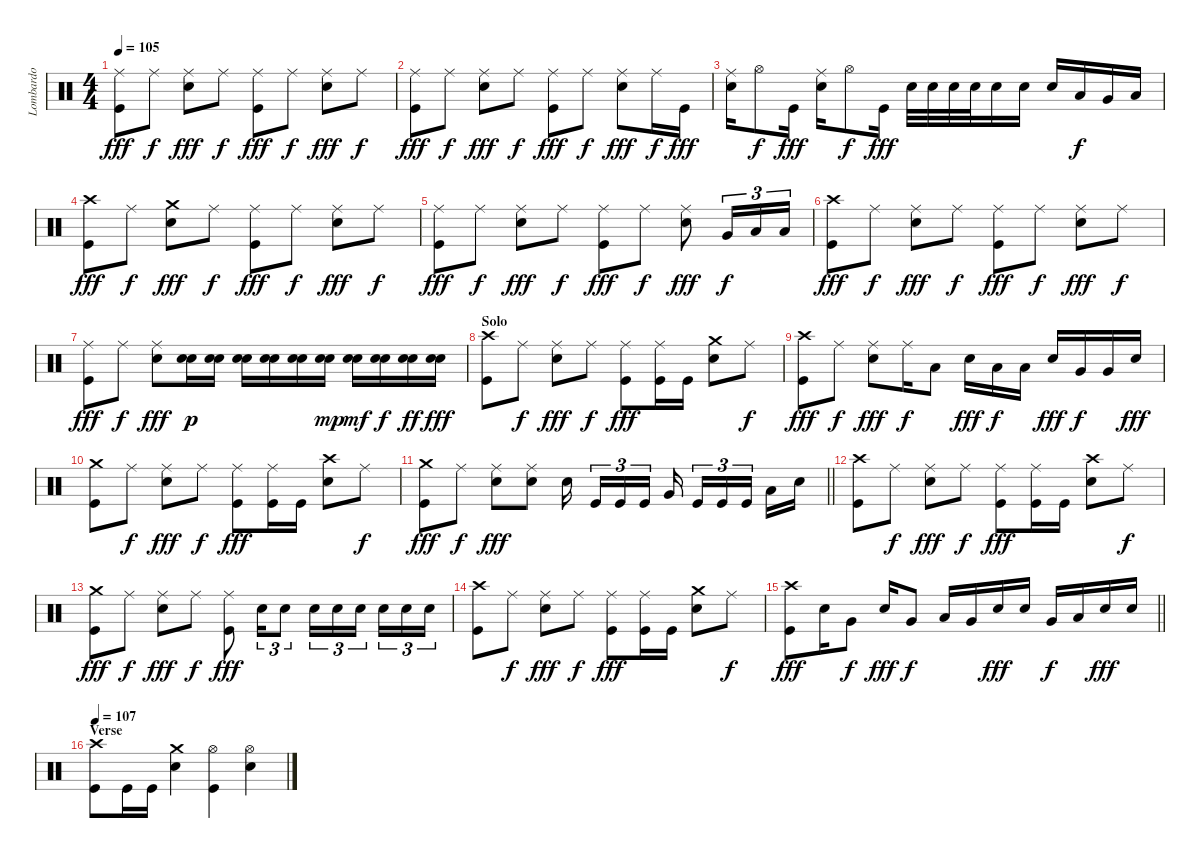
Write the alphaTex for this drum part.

\track ("Lombardo" "Lombardo") {instrument percussion}
\staff {score}
\articulation defaults
\ts (4 4)
\tempo 105
\clef neutral
\ks c
("Ride (middle)" "Kick (hit)").8{dy fff} "Ride (middle)".8{dy f} ("Ride (middle)" "Electric Snare (hit)").8{dy fff} "Ride (middle)".8{dy f} ("Ride (middle)" "Kick (hit)").8{dy fff} "Ride (middle)".8{dy f} ("Ride (middle)" "Electric Snare (hit)").8{dy fff} "Ride (middle)".8{dy f} |
("Ride (middle)" "Kick (hit)").8{dy fff} "Ride (middle)".8{dy f} ("Ride (middle)" "Electric Snare (hit)").8{dy fff} "Ride (middle)".8{dy f} ("Ride (middle)" "Kick (hit)").8{dy fff} "Ride (middle)".8{dy f} ("Ride (middle)" "Electric Snare (hit)").8{dy fff} "Ride (middle)".16{dy f} "Kick (hit)".16{dy fff} |
("Electric Snare (hit)" "Ride (middle)").16 "Hi-Hat (open)".8{dy f} "Kick (hit)".16{dy fff} ("Electric Snare (hit)" "Ride (middle)").16 "Hi-Hat (open)".8{dy f} "Kick (hit)".16{dy fff} "Electric Snare (hit)".32 "Electric Snare (hit)".32 "Electric Snare (hit)".32 "Electric Snare (hit)".32 "Electric Snare (hit)".16 "Electric Snare (hit)".16 "Electric Snare (hit)".16 "Low Tom (hit)".16{dy f} "Very Low Tom (hit)".16 "Low Floor Tom (hit)".16 |
("Kick (hit)" "Crash high (hit)").8{dy fff} "Ride (middle)".8{dy f} ("Electric Snare (hit)" "Crash medium (hit)").8{dy fff} "Ride (middle)".8{dy f} ("Kick (hit)" "Ride (middle)").8{dy fff} "Ride (middle)".8{dy f} ("Electric Snare (hit)" "Ride (middle)").8{dy fff} "Ride (middle)".8{dy f} |
("Kick (hit)" "Ride (middle)").8{dy fff} "Ride (middle)".8{dy f} ("Electric Snare (hit)" "Ride (middle)").8{dy fff} "Ride (middle)".8{dy f} ("Kick (hit)" "Ride (middle)").8{dy fff} "Ride (middle)".8{dy f} ("Electric Snare (hit)" "Ride (middle)").8{dy fff} "Very Low Tom (hit)".16{tu (3 2) dy f} "Low Floor Tom (hit)".16{tu (3 2)} "Low Floor Tom (hit)".16{tu (3 2)} |
("Kick (hit)" "Crash high (hit)").8{dy fff} "Ride (middle)".8{dy f} ("Electric Snare (hit)" "Ride (middle)").8{dy fff} "Ride (middle)".8{dy f} ("Kick (hit)" "Ride (middle)").8{dy fff} "Ride (middle)".8{dy f} ("Electric Snare (hit)" "Ride (middle)").8{dy fff} "Ride (middle)".8{dy f} |
("Kick (hit)" "Ride (middle)").8{dy fff} "Ride (middle)".8{dy f} ("Electric Snare (hit)" "Ride (middle)").8{dy fff} ("Electric Snare (hit)" "Electric Snare (hit)").16{dy p} ("Electric Snare (hit)" "Electric Snare (hit)").16 ("Electric Snare (hit)" "Electric Snare (hit)").16 ("Electric Snare (hit)" "Electric Snare (hit)").16 ("Electric Snare (hit)" "Electric Snare (hit)").16 ("Electric Snare (hit)" "Electric Snare (hit)").16{dy mp} ("Electric Snare (hit)" "Electric Snare (hit)").16{dy mf} ("Electric Snare (hit)" "Electric Snare (hit)").16{dy f} ("Electric Snare (hit)" "Electric Snare (hit)").16{dy ff} ("Electric Snare (hit)" "Electric Snare (hit)").16{dy fff} |
\section ("" "Solo")
("Kick (hit)" "Crash high (hit)").8 "Ride (middle)".8{dy f} ("Electric Snare (hit)" "Ride (middle)").8{dy fff} "Ride (middle)".8{dy f} ("Kick (hit)" "Ride (middle)").8{dy fff} ("Kick (hit)" "Ride (middle)").16 "Kick (hit)".16 ("Electric Snare (hit)" "Crash medium (hit)").8 "Ride (middle)".8{dy f} |
("Crash high (hit)" "Kick (hit)").8{dy fff} "Ride (middle)".8{dy f} ("Electric Snare (hit)" "Ride (middle)").8{dy fff} "Ride (middle)".16{dy f} "Low Floor Tom (hit)".8 "Electric Snare (hit)".16{dy fff} "Low Floor Tom (hit)".16{dy f} "Low Floor Tom (hit)".16 "Electric Snare (hit)".16{dy fff} "Very Low Tom (hit)".16{dy f} "Very Low Tom (hit)".16 "Electric Snare (hit)".16{dy fff} |
("Kick (hit)" "Crash medium (hit)").8 "Ride (middle)".8{dy f} ("Electric Snare (hit)" "Ride (middle)").8{dy fff} "Ride (middle)".8{dy f} ("Kick (hit)" "Ride (middle)").8{dy fff} ("Kick (hit)" "Ride (middle)").16 "Kick (hit)".16 ("Electric Snare (hit)" "Crash high (hit)").8 "Ride (middle)".8{dy f} |
\barLineRight lightlight
("Kick (hit)" "Crash medium (hit)").8{dy fff} "Ride (middle)".8{dy f} ("Electric Snare (hit)" "Ride (middle)").8{dy fff} ("Electric Snare (hit)" "Ride (middle)").8 "Electric Snare (hit)".16 "Kick (hit)".16{tu (3 2)} "Kick (hit)".16{tu (3 2)} "Kick (hit)".16{tu (3 2)} "Very Low Tom (hit)".16 "Kick (hit)".16{tu (3 2)} "Kick (hit)".16{tu (3 2)} "Kick (hit)".16{tu (3 2)} "Low Floor Tom (hit)".16 "Electric Snare (hit)".16 |
("Kick (hit)" "Crash high (hit)").8 "Ride (middle)".8{dy f} ("Electric Snare (hit)" "Ride (middle)").8{dy fff} "Ride (middle)".8{dy f} ("Kick (hit)" "Ride (middle)").8{dy fff} ("Kick (hit)" "Ride (middle)").16 "Kick (hit)".16 ("Electric Snare (hit)" "Crash high (hit)").8 "Ride (middle)".8{dy f} |
("Crash medium (hit)" "Kick (hit)").8{dy fff} "Ride (middle)".8{dy f} ("Electric Snare (hit)" "Ride (middle)").8{dy fff} "Ride (middle)".8{dy f} ("Kick (hit)" "Ride (middle)").8{dy fff} "Electric Snare (hit)".16{tu (3 2)} "Electric Snare (hit)".8{tu (3 2)} "Electric Snare (hit)".16{tu (3 2)} "Electric Snare (hit)".16{tu (3 2)} "Electric Snare (hit)".16{tu (3 2)} "Electric Snare (hit)".16{tu (3 2)} "Electric Snare (hit)".16{tu (3 2)} "Electric Snare (hit)".16{tu (3 2)} |
("Kick (hit)" "Crash high (hit)").8 "Ride (middle)".8{dy f} ("Electric Snare (hit)" "Ride (middle)").8{dy fff} "Ride (middle)".8{dy f} ("Kick (hit)" "Ride (middle)").8{dy fff} ("Kick (hit)" "Ride (middle)").16 "Kick (hit)".16 ("Electric Snare (hit)" "Crash medium (hit)").8 "Ride (middle)".8{dy f} |
\barLineRight lightlight
("Kick (hit)" "Crash high (hit)").8{dy fff} "Electric Snare (hit)".16 "Very Low Tom (hit)".8{dy f} "Electric Snare (hit)".16{dy fff} "Very Low Tom (hit)".8{dy f} "Low Floor Tom (hit)".16 "Very Low Tom (hit)".16 "Electric Snare (hit)".16{dy fff} "Electric Snare (hit)".16 "Very Low Tom (hit)".16{dy f} "Low Floor Tom (hit)".16 "Electric Snare (hit)".16{dy fff} "Electric Snare (hit)".16 |
\section ("" "Verse")
\tempo 107
("Kick (hit)" "Crash high (hit)").8 "Kick (hit)".16 "Kick (hit)".16 ("Electric Snare (hit)" "Crash medium (hit)").4 ("Kick (hit)" "Hi-Hat (open)").4 ("Electric Snare (hit)" "Hi-Hat (open)").4
